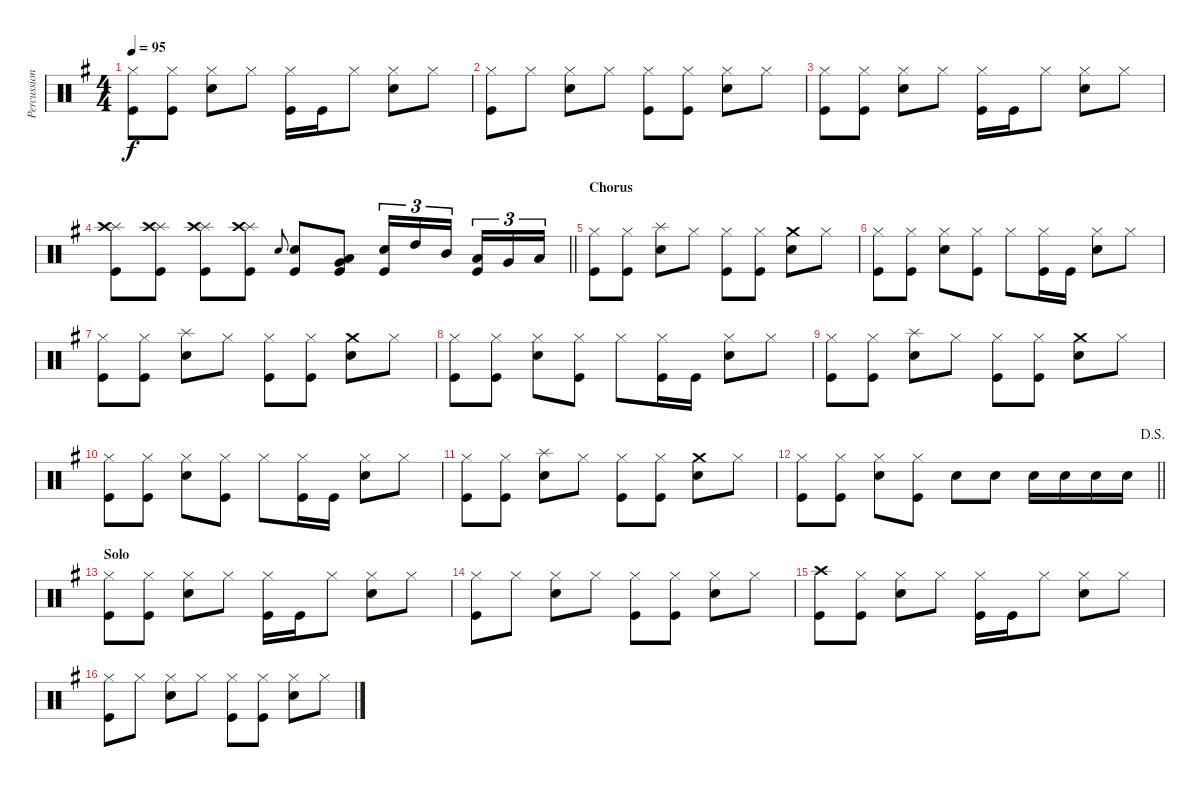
\track ("Percussion" "Percussion") {instrument percussion}
\staff {score}
\articulation defaults
\ts (4 4)
\tempo 95
\clef neutral
\ks eminor
("Hi-Hat (closed)" "Kick (hit)").8{dy f} ("Hi-Hat (closed)" "Kick (hit)").8 ("Hi-Hat (closed)" "Snare (hit) 2").8 "Hi-Hat (closed)".8 ("Hi-Hat (closed)" "Kick (hit)").16 "Kick (hit)".16 "Hi-Hat (closed)".8 ("Hi-Hat (closed)" "Snare (hit) 2").8 "Hi-Hat (closed)".8 |
("Hi-Hat (closed)" "Kick (hit)").8 "Hi-Hat (closed)".8 ("Hi-Hat (closed)" "Snare (hit) 2").8 "Hi-Hat (closed)".8 ("Hi-Hat (closed)" "Kick (hit)").8 ("Hi-Hat (closed)" "Kick (hit)").8 ("Hi-Hat (closed)" "Snare (hit) 2").8 "Hi-Hat (closed)".8 |
("Hi-Hat (closed)" "Kick (hit)").8 ("Hi-Hat (closed)" "Kick (hit)").8 ("Hi-Hat (closed)" "Snare (hit) 2").8 "Hi-Hat (closed)".8 ("Hi-Hat (closed)" "Kick (hit)").16 "Kick (hit)".16 "Hi-Hat (closed)".8 ("Hi-Hat (closed)" "Snare (hit) 2").8 "Hi-Hat (closed)".8 |
\barLineRight lightlight
("Splash (hit)" "Crash high (hit)" "Kick (hit)").8 ("Splash (hit)" "Crash high (hit)" "Kick (hit)").8 ("Splash (hit)" "Crash high (hit)" "Kick (hit)").8 ("Splash (hit)" "Crash high (hit)" "Kick (hit)").8 "Snare (hit) 2".8{gr onbeat} ("Snare (hit) 2" "Kick (hit)").8 ("Very Low Tom (hit)" "Low Floor Tom (hit)" "Kick (hit)").8 ("Snare (hit) 2" "Kick (hit)").16{tu (3 2)} "High Tom (hit)".16{tu (3 2)} "Mid Tom (hit)".16{tu (3 2) beam splitsecondary} ("Low Tom (hit)" "Kick (hit)").16{tu (3 2)} "Very Low Tom (hit)".16{tu (3 2)} "Low Floor Tom (hit)".16{tu (3 2)} |
\section ("" "Chorus")
("Hi-Hat (closed)" "Kick (hit)").8 ("Hi-Hat (closed)" "Kick (hit)").8 ("Splash (hit)" "Snare (hit) 2").8 "Hi-Hat (closed)".8 ("Hi-Hat (closed)" "Kick (hit)").8 ("Hi-Hat (closed)" "Kick (hit)").8 ("Crash medium (hit)" "Snare (hit) 2").8 "Hi-Hat (closed)".8 |
("Hi-Hat (closed)" "Kick (hit)").8 ("Hi-Hat (closed)" "Kick (hit)").8 ("Hi-Hat (closed)" "Snare (hit) 2").8 ("Hi-Hat (closed)" "Kick (hit)").8 "Hi-Hat (closed)".8 ("Hi-Hat (closed)" "Kick (hit)").16 "Kick (hit)".16 ("Hi-Hat (closed)" "Snare (hit) 2").8 "Hi-Hat (closed)".8 |
("Hi-Hat (closed)" "Kick (hit)").8 ("Hi-Hat (closed)" "Kick (hit)").8 ("Splash (hit)" "Snare (hit) 2").8 "Hi-Hat (closed)".8 ("Hi-Hat (closed)" "Kick (hit)").8 ("Hi-Hat (closed)" "Kick (hit)").8 ("Crash medium (hit)" "Snare (hit) 2").8 "Hi-Hat (closed)".8 |
("Hi-Hat (closed)" "Kick (hit)").8 ("Hi-Hat (closed)" "Kick (hit)").8 ("Hi-Hat (closed)" "Snare (hit) 2").8 ("Hi-Hat (closed)" "Kick (hit)").8 "Hi-Hat (closed)".8 ("Hi-Hat (closed)" "Kick (hit)").16 "Kick (hit)".16 ("Hi-Hat (closed)" "Snare (hit) 2").8 "Hi-Hat (closed)".8 |
("Hi-Hat (closed)" "Kick (hit)").8 ("Hi-Hat (closed)" "Kick (hit)").8 ("Splash (hit)" "Snare (hit) 2").8 "Hi-Hat (closed)".8 ("Hi-Hat (closed)" "Kick (hit)").8 ("Hi-Hat (closed)" "Kick (hit)").8 ("Crash medium (hit)" "Snare (hit) 2").8 "Hi-Hat (closed)".8 |
("Hi-Hat (closed)" "Kick (hit)").8 ("Hi-Hat (closed)" "Kick (hit)").8 ("Hi-Hat (closed)" "Snare (hit) 2").8 ("Hi-Hat (closed)" "Kick (hit)").8 "Hi-Hat (closed)".8 ("Hi-Hat (closed)" "Kick (hit)").16 "Kick (hit)".16 ("Hi-Hat (closed)" "Snare (hit) 2").8 "Hi-Hat (closed)".8 |
("Hi-Hat (closed)" "Kick (hit)").8 ("Hi-Hat (closed)" "Kick (hit)").8 ("Splash (hit)" "Snare (hit) 2").8 "Hi-Hat (closed)".8 ("Hi-Hat (closed)" "Kick (hit)").8 ("Hi-Hat (closed)" "Kick (hit)").8 ("Crash medium (hit)" "Snare (hit) 2").8 "Hi-Hat (closed)".8 |
\jump dalsegno
\barLineRight lightlight
("Hi-Hat (closed)" "Kick (hit)").8 ("Hi-Hat (closed)" "Kick (hit)").8 ("Hi-Hat (closed)" "Snare (hit) 2").8 ("Hi-Hat (closed)" "Kick (hit)").8 "Snare (hit) 2".8 "Snare (hit) 2".8 "Snare (hit) 2".16 "Snare (hit) 2".16 "Snare (hit) 2".16 "Snare (hit) 2".16 |
\section ("" "Solo")
("Hi-Hat (closed)" "Kick (hit)").8 ("Hi-Hat (closed)" "Kick (hit)").8 ("Hi-Hat (closed)" "Snare (hit) 2").8 "Hi-Hat (closed)".8 ("Hi-Hat (closed)" "Kick (hit)").16 "Kick (hit)".16 "Hi-Hat (closed)".8 ("Hi-Hat (closed)" "Snare (hit) 2").8 "Hi-Hat (closed)".8 |
("Hi-Hat (closed)" "Kick (hit)").8 "Hi-Hat (closed)".8 ("Hi-Hat (closed)" "Snare (hit) 2").8 "Hi-Hat (closed)".8 ("Hi-Hat (closed)" "Kick (hit)").8 ("Hi-Hat (closed)" "Kick (hit)").8 ("Hi-Hat (closed)" "Snare (hit) 2").8 "Hi-Hat (closed)".8 |
("Crash high (hit)" "Kick (hit)").8 ("Hi-Hat (closed)" "Kick (hit)").8 ("Hi-Hat (closed)" "Snare (hit) 2").8 "Hi-Hat (closed)".8 ("Hi-Hat (closed)" "Kick (hit)").16 "Kick (hit)".16 "Hi-Hat (closed)".8 ("Hi-Hat (closed)" "Snare (hit) 2").8 "Hi-Hat (closed)".8 |
("Hi-Hat (closed)" "Kick (hit)").8 "Hi-Hat (closed)".8 ("Hi-Hat (closed)" "Snare (hit) 2").8 "Hi-Hat (closed)".8 ("Hi-Hat (closed)" "Kick (hit)").8 ("Hi-Hat (closed)" "Kick (hit)").8 ("Hi-Hat (closed)" "Snare (hit) 2").8 "Hi-Hat (closed)".8
